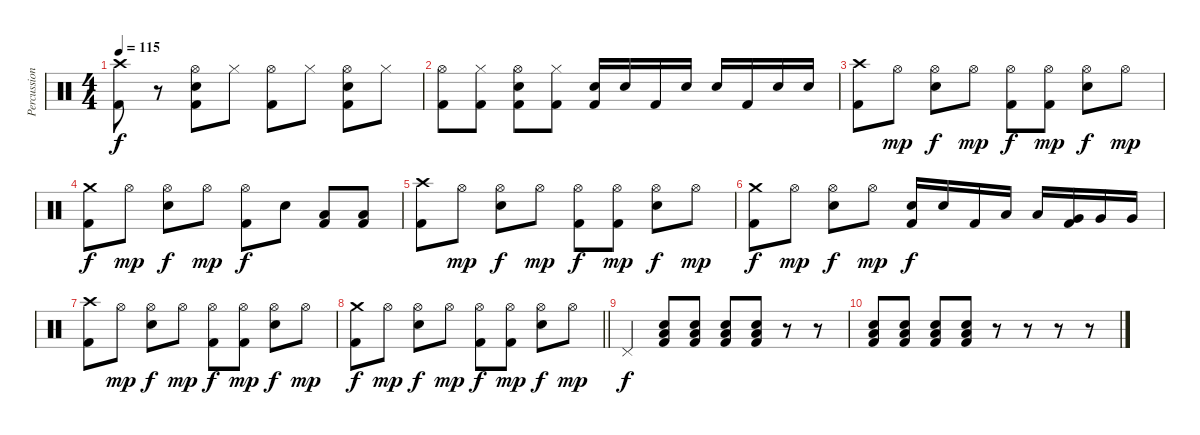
\track ("Percussion" "Percussion") {instrument percussion}
\staff {score}
\articulation defaults
\ts (4 4)
\tempo 115
\clef neutral
\ks c
("Crash high (hit)" "Kick (hit) 2").8{dy f} r.8 ("Hi-Hat (open)" "Electric Snare (hit)" "Kick (hit) 2").8 "Hi-Hat (closed)".8 ("Hi-Hat (open)" "Kick (hit) 2").8 "Hi-Hat (closed)".8 ("Hi-Hat (open)" "Electric Snare (hit)" "Kick (hit) 2").8 "Hi-Hat (closed)".8 |
("Hi-Hat (open)" "Kick (hit) 2").8 ("Hi-Hat (closed)" "Kick (hit) 2").8 ("Hi-Hat (open)" "Electric Snare (hit)" "Kick (hit) 2").8 ("Hi-Hat (closed)" "Kick (hit) 2").8 ("Electric Snare (hit)" "Kick (hit) 2").16 "Electric Snare (hit)".16 "Kick (hit) 2".16 "Electric Snare (hit)".16 "Electric Snare (hit)".16 "Kick (hit) 2".16 "Electric Snare (hit)".16 "Electric Snare (hit)".16 |
("Crash high (hit)" "Kick (hit) 2").8 "Hi-Hat (open)".8{dy mp} ("Hi-Hat (open)" "Electric Snare (hit)").8{dy f} "Hi-Hat (open)".8{dy mp} ("Hi-Hat (open)" "Kick (hit) 2").8{dy f} ("Hi-Hat (open)" "Kick (hit) 2").8{dy mp} ("Hi-Hat (open)" "Electric Snare (hit)").8{dy f} "Hi-Hat (open)".8{dy mp} |
("Crash medium (hit)" "Kick (hit) 2").8{dy f} "Hi-Hat (open)".8{dy mp} ("Hi-Hat (open)" "Electric Snare (hit)").8{dy f} "Hi-Hat (open)".8{dy mp} ("Hi-Hat (open)" "Kick (hit) 2").8{dy f} "Electric Snare (hit)".8 ("Low Tom (hit)" "Kick (hit) 2").8 ("Low Floor Tom (hit)" "Kick (hit) 2").8 |
("Crash high (hit)" "Kick (hit) 2").8 "Hi-Hat (open)".8{dy mp} ("Hi-Hat (open)" "Electric Snare (hit)").8{dy f} "Hi-Hat (open)".8{dy mp} ("Hi-Hat (open)" "Kick (hit) 2").8{dy f} ("Hi-Hat (open)" "Kick (hit) 2").8{dy mp} ("Hi-Hat (open)" "Electric Snare (hit)").8{dy f} "Hi-Hat (open)".8{dy mp} |
("Crash medium (hit)" "Kick (hit) 2").8{dy f} "Hi-Hat (open)".8{dy mp} ("Hi-Hat (open)" "Electric Snare (hit)").8{dy f} "Hi-Hat (open)".8{dy mp} ("Electric Snare (hit)" "Kick (hit) 2").16{dy f} "Electric Snare (hit)".16 "Kick (hit) 2".16 "Low Tom (hit)".16 "Low Tom (hit)".16 ("Very Low Tom (hit)" "Kick (hit) 2").16 "Very Low Tom (hit)".16 "Very Low Tom (hit)".16 |
("Crash high (hit)" "Kick (hit) 2").8 "Hi-Hat (open)".8{dy mp} ("Hi-Hat (open)" "Electric Snare (hit)").8{dy f} "Hi-Hat (open)".8{dy mp} ("Hi-Hat (open)" "Kick (hit) 2").8{dy f} ("Hi-Hat (open)" "Kick (hit) 2").8{dy mp} ("Hi-Hat (open)" "Electric Snare (hit)").8{dy f} "Hi-Hat (open)".8{dy mp} |
\barLineRight lightlight
("Crash medium (hit)" "Kick (hit) 2").8{dy f} "Hi-Hat (open)".8{dy mp} ("Hi-Hat (open)" "Electric Snare (hit)").8{dy f} "Hi-Hat (open)".8{dy mp} ("Hi-Hat (open)" "Kick (hit) 2").8{dy f} ("Hi-Hat (open)" "Kick (hit) 2").8{dy mp} ("Hi-Hat (open)" "Electric Snare (hit)").8{dy f} "Hi-Hat (open)".8{dy mp} |
"Pedal Hi-Hat (hit)".4{dy f} ("Low Floor Tom (hit)" "Electric Snare (hit)" "Kick (hit) 2").8 ("Low Floor Tom (hit)" "Electric Snare (hit)" "Kick (hit) 2").8 ("Low Floor Tom (hit)" "Electric Snare (hit)" "Kick (hit) 2").8 ("Low Floor Tom (hit)" "Electric Snare (hit)" "Kick (hit) 2").8 r.8 r.8 |
("Low Floor Tom (hit)" "Electric Snare (hit)" "Kick (hit) 2").8 ("Low Floor Tom (hit)" "Electric Snare (hit)" "Kick (hit) 2").8 ("Low Floor Tom (hit)" "Electric Snare (hit)" "Kick (hit) 2").8 ("Low Floor Tom (hit)" "Electric Snare (hit)" "Kick (hit) 2").8 r.8 r.8 r.8 r.8
